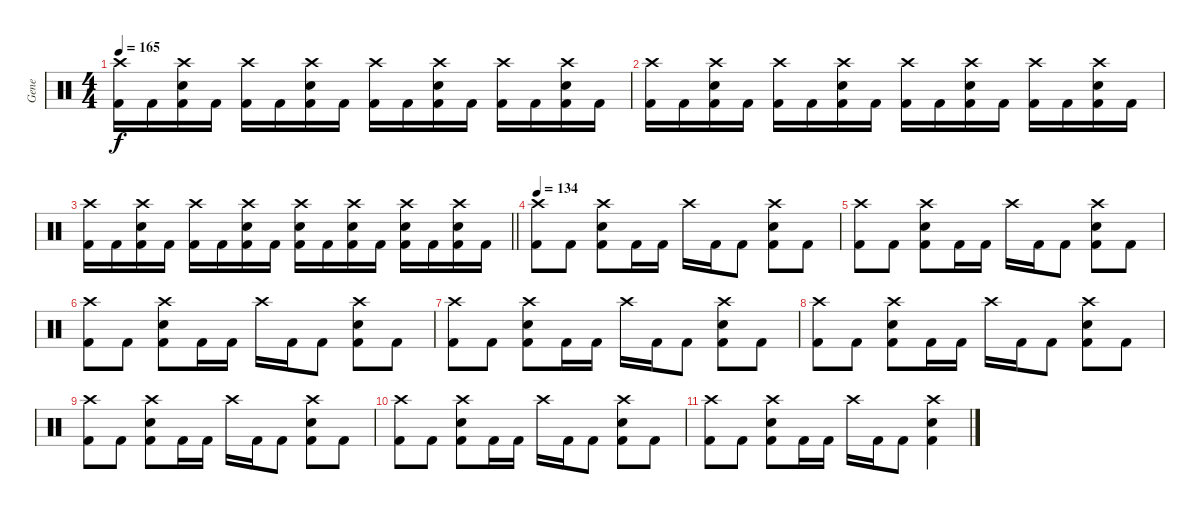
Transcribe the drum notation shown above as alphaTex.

\track ("Gene" "Gene") {instrument percussion}
\staff {score}
\articulation defaults
\ts (4 4)
\tempo 165
\clef neutral
\ks c
("Crash high (hit)" "Kick (hit) 2").16{dy f} "Kick (hit) 2".16 ("Crash high (hit)" "Electric Snare (hit)" "Kick (hit) 2").16 "Kick (hit) 2".16 ("Crash high (hit)" "Kick (hit) 2").16 "Kick (hit) 2".16 ("Crash high (hit)" "Electric Snare (hit)" "Kick (hit) 2").16 "Kick (hit) 2".16 ("Crash high (hit)" "Kick (hit) 2").16 "Kick (hit) 2".16 ("Crash high (hit)" "Electric Snare (hit)" "Kick (hit) 2").16 "Kick (hit) 2".16 ("Crash high (hit)" "Kick (hit) 2").16 "Kick (hit) 2".16 ("Crash high (hit)" "Electric Snare (hit)" "Kick (hit) 2").16 "Kick (hit) 2".16 |
("Crash high (hit)" "Kick (hit) 2").16 "Kick (hit) 2".16 ("Crash high (hit)" "Electric Snare (hit)" "Kick (hit) 2").16 "Kick (hit) 2".16 ("Crash high (hit)" "Kick (hit) 2").16 "Kick (hit) 2".16 ("Crash high (hit)" "Electric Snare (hit)" "Kick (hit) 2").16 "Kick (hit) 2".16 ("Crash high (hit)" "Kick (hit) 2").16 "Kick (hit) 2".16 ("Crash high (hit)" "Electric Snare (hit)" "Kick (hit) 2").16 "Kick (hit) 2".16 ("Crash high (hit)" "Kick (hit) 2").16 "Kick (hit) 2".16 ("Crash high (hit)" "Electric Snare (hit)" "Kick (hit) 2").16 "Kick (hit) 2".16 |
\barLineRight lightlight
("Crash high (hit)" "Kick (hit) 2").16 "Kick (hit) 2".16 ("Crash high (hit)" "Electric Snare (hit)" "Kick (hit) 2").16 "Kick (hit) 2".16 ("Crash high (hit)" "Kick (hit) 2").16 "Kick (hit) 2".16 ("Crash high (hit)" "Electric Snare (hit)" "Kick (hit) 2").16 "Kick (hit) 2".16 ("Crash high (hit)" "Electric Snare (hit)" "Kick (hit) 2").16 "Kick (hit) 2".16 ("Crash high (hit)" "Electric Snare (hit)" "Kick (hit) 2").16 "Kick (hit) 2".16 ("Crash high (hit)" "Electric Snare (hit)" "Kick (hit) 2").16 "Kick (hit) 2".16 ("Crash high (hit)" "Electric Snare (hit)" "Kick (hit) 2").16 "Kick (hit) 2".16 |
\tempo 134
("Crash high (hit)" "Kick (hit) 2").8 "Kick (hit) 2".8 ("Electric Snare (hit)" "Crash high (hit)" "Kick (hit) 2").8 "Kick (hit) 2".16 "Kick (hit) 2".16 "Crash high (hit)".16 "Kick (hit) 2".16 "Kick (hit) 2".8 ("Crash high (hit)" "Electric Snare (hit)" "Kick (hit) 2").8 "Kick (hit) 2".8 |
("Crash high (hit)" "Kick (hit) 2").8 "Kick (hit) 2".8 ("Electric Snare (hit)" "Crash high (hit)" "Kick (hit) 2").8 "Kick (hit) 2".16 "Kick (hit) 2".16 "Crash high (hit)".16 "Kick (hit) 2".16 "Kick (hit) 2".8 ("Crash high (hit)" "Electric Snare (hit)" "Kick (hit) 2").8 "Kick (hit) 2".8 |
("Crash high (hit)" "Kick (hit) 2").8 "Kick (hit) 2".8 ("Electric Snare (hit)" "Crash high (hit)" "Kick (hit) 2").8 "Kick (hit) 2".16 "Kick (hit) 2".16 "Crash high (hit)".16 "Kick (hit) 2".16 "Kick (hit) 2".8 ("Crash high (hit)" "Electric Snare (hit)" "Kick (hit) 2").8 "Kick (hit) 2".8 |
("Crash high (hit)" "Kick (hit) 2").8 "Kick (hit) 2".8 ("Electric Snare (hit)" "Crash high (hit)" "Kick (hit) 2").8 "Kick (hit) 2".16 "Kick (hit) 2".16 "Crash high (hit)".16 "Kick (hit) 2".16 "Kick (hit) 2".8 ("Crash high (hit)" "Electric Snare (hit)" "Kick (hit) 2").8 "Kick (hit) 2".8 |
("Crash high (hit)" "Kick (hit) 2").8 "Kick (hit) 2".8 ("Electric Snare (hit)" "Crash high (hit)" "Kick (hit) 2").8 "Kick (hit) 2".16 "Kick (hit) 2".16 "Crash high (hit)".16 "Kick (hit) 2".16 "Kick (hit) 2".8 ("Crash high (hit)" "Electric Snare (hit)" "Kick (hit) 2").8 "Kick (hit) 2".8 |
("Crash high (hit)" "Kick (hit) 2").8 "Kick (hit) 2".8 ("Electric Snare (hit)" "Crash high (hit)" "Kick (hit) 2").8 "Kick (hit) 2".16 "Kick (hit) 2".16 "Crash high (hit)".16 "Kick (hit) 2".16 "Kick (hit) 2".8 ("Crash high (hit)" "Electric Snare (hit)" "Kick (hit) 2").8 "Kick (hit) 2".8 |
("Crash high (hit)" "Kick (hit) 2").8 "Kick (hit) 2".8 ("Electric Snare (hit)" "Crash high (hit)" "Kick (hit) 2").8 "Kick (hit) 2".16 "Kick (hit) 2".16 "Crash high (hit)".16 "Kick (hit) 2".16 "Kick (hit) 2".8 ("Crash high (hit)" "Electric Snare (hit)" "Kick (hit) 2").8 "Kick (hit) 2".8 |
("Crash high (hit)" "Kick (hit) 2").8 "Kick (hit) 2".8 ("Electric Snare (hit)" "Crash high (hit)" "Kick (hit) 2").8 "Kick (hit) 2".16 "Kick (hit) 2".16 "Crash high (hit)".16 "Kick (hit) 2".16 "Kick (hit) 2".8 ("Crash high (hit)" "Electric Snare (hit)" "Kick (hit) 2").4
